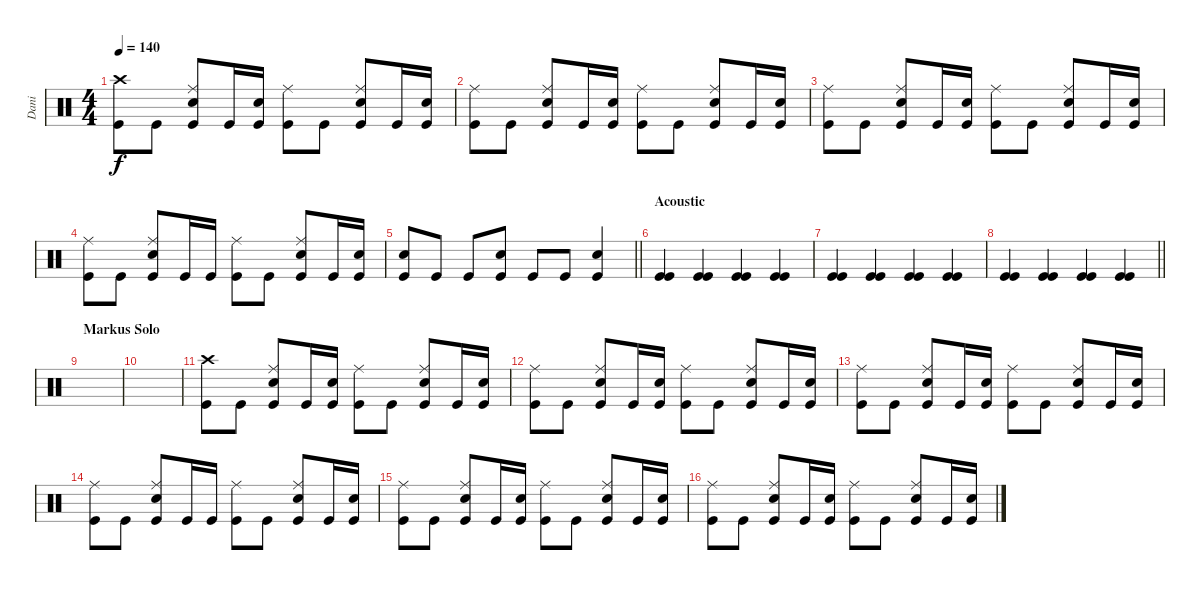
\track ("Dani" "Dani") {instrument percussion}
\staff {score}
\articulation defaults
\ts (4 4)
\tempo 140
\clef neutral
\ks c
("Crash high (hit)" "Kick (hit)").8{dy f} "Kick (hit)".8 ("Ride (middle)" "Snare (hit) 2" "Kick (hit)").8 "Kick (hit)".16 ("Snare (hit) 2" "Kick (hit)").16 ("Ride (middle)" "Kick (hit)").8 "Kick (hit)".8 ("Ride (middle)" "Snare (hit) 2" "Kick (hit)").8 "Kick (hit)".16 ("Snare (hit) 2" "Kick (hit)").16 |
("Ride (middle)" "Kick (hit)").8 "Kick (hit)".8 ("Ride (middle)" "Snare (hit) 2" "Kick (hit)").8 "Kick (hit)".16 ("Snare (hit) 2" "Kick (hit)").16 ("Ride (middle)" "Kick (hit)").8 "Kick (hit)".8 ("Ride (middle)" "Snare (hit) 2" "Kick (hit)").8 "Kick (hit)".16 ("Snare (hit) 2" "Kick (hit)").16 |
("Ride (middle)" "Kick (hit)").8 "Kick (hit)".8 ("Ride (middle)" "Snare (hit) 2" "Kick (hit)").8 "Kick (hit)".16 ("Snare (hit) 2" "Kick (hit)").16 ("Ride (middle)" "Kick (hit)").8 "Kick (hit)".8 ("Ride (middle)" "Snare (hit) 2" "Kick (hit)").8 "Kick (hit)".16 ("Snare (hit) 2" "Kick (hit)").16 |
("Ride (middle)" "Kick (hit)").8 "Kick (hit)".8 ("Ride (middle)" "Snare (hit) 2" "Kick (hit)").8 "Kick (hit)".16 "Kick (hit)".16 ("Ride (middle)" "Kick (hit)").8 "Kick (hit)".8 ("Ride (middle)" "Snare (hit) 2" "Kick (hit)").8 "Kick (hit)".16 ("Snare (hit) 2" "Kick (hit)").16 |
\barLineRight lightlight
("Snare (hit) 2" "Kick (hit)").8 "Kick (hit)".8 "Kick (hit)".8 ("Snare (hit) 2" "Kick (hit)").8 "Kick (hit)".8 "Kick (hit)".8 ("Snare (hit) 2" "Kick (hit)").4 |
\section ("" "Acoustic")
("Kick (hit)" "Kick (hit)").4 ("Kick (hit)" "Kick (hit)").4 ("Kick (hit)" "Kick (hit)").4 ("Kick (hit)" "Kick (hit)").4 |
("Kick (hit)" "Kick (hit)").4 ("Kick (hit)" "Kick (hit)").4 ("Kick (hit)" "Kick (hit)").4 ("Kick (hit)" "Kick (hit)").4 |
\barLineRight lightlight
("Kick (hit)" "Kick (hit)").4 ("Kick (hit)" "Kick (hit)").4 ("Kick (hit)" "Kick (hit)").4 ("Kick (hit)" "Kick (hit)").4 |
\section ("" "Markus Solo")
|
|
("Crash high (hit)" "Kick (hit)").8 "Kick (hit)".8 ("Ride (middle)" "Snare (hit) 2" "Kick (hit)").8 "Kick (hit)".16 ("Snare (hit) 2" "Kick (hit)").16 ("Ride (middle)" "Kick (hit)").8 "Kick (hit)".8 ("Ride (middle)" "Snare (hit) 2" "Kick (hit)").8 "Kick (hit)".16 ("Snare (hit) 2" "Kick (hit)").16 |
("Ride (middle)" "Kick (hit)").8 "Kick (hit)".8 ("Ride (middle)" "Snare (hit) 2" "Kick (hit)").8 "Kick (hit)".16 ("Snare (hit) 2" "Kick (hit)").16 ("Ride (middle)" "Kick (hit)").8 "Kick (hit)".8 ("Ride (middle)" "Snare (hit) 2" "Kick (hit)").8 "Kick (hit)".16 ("Snare (hit) 2" "Kick (hit)").16 |
("Ride (middle)" "Kick (hit)").8 "Kick (hit)".8 ("Ride (middle)" "Snare (hit) 2" "Kick (hit)").8 "Kick (hit)".16 ("Snare (hit) 2" "Kick (hit)").16 ("Ride (middle)" "Kick (hit)").8 "Kick (hit)".8 ("Ride (middle)" "Snare (hit) 2" "Kick (hit)").8 "Kick (hit)".16 ("Snare (hit) 2" "Kick (hit)").16 |
("Ride (middle)" "Kick (hit)").8 "Kick (hit)".8 ("Ride (middle)" "Snare (hit) 2" "Kick (hit)").8 "Kick (hit)".16 "Kick (hit)".16 ("Ride (middle)" "Kick (hit)").8 "Kick (hit)".8 ("Ride (middle)" "Snare (hit) 2" "Kick (hit)").8 "Kick (hit)".16 ("Snare (hit) 2" "Kick (hit)").16 |
("Ride (middle)" "Kick (hit)").8 "Kick (hit)".8 ("Ride (middle)" "Snare (hit) 2" "Kick (hit)").8 "Kick (hit)".16 ("Snare (hit) 2" "Kick (hit)").16 ("Ride (middle)" "Kick (hit)").8 "Kick (hit)".8 ("Ride (middle)" "Snare (hit) 2" "Kick (hit)").8 "Kick (hit)".16 ("Snare (hit) 2" "Kick (hit)").16 |
("Ride (middle)" "Kick (hit)").8 "Kick (hit)".8 ("Ride (middle)" "Snare (hit) 2" "Kick (hit)").8 "Kick (hit)".16 ("Snare (hit) 2" "Kick (hit)").16 ("Ride (middle)" "Kick (hit)").8 "Kick (hit)".8 ("Ride (middle)" "Snare (hit) 2" "Kick (hit)").8 "Kick (hit)".16 ("Snare (hit) 2" "Kick (hit)").16
